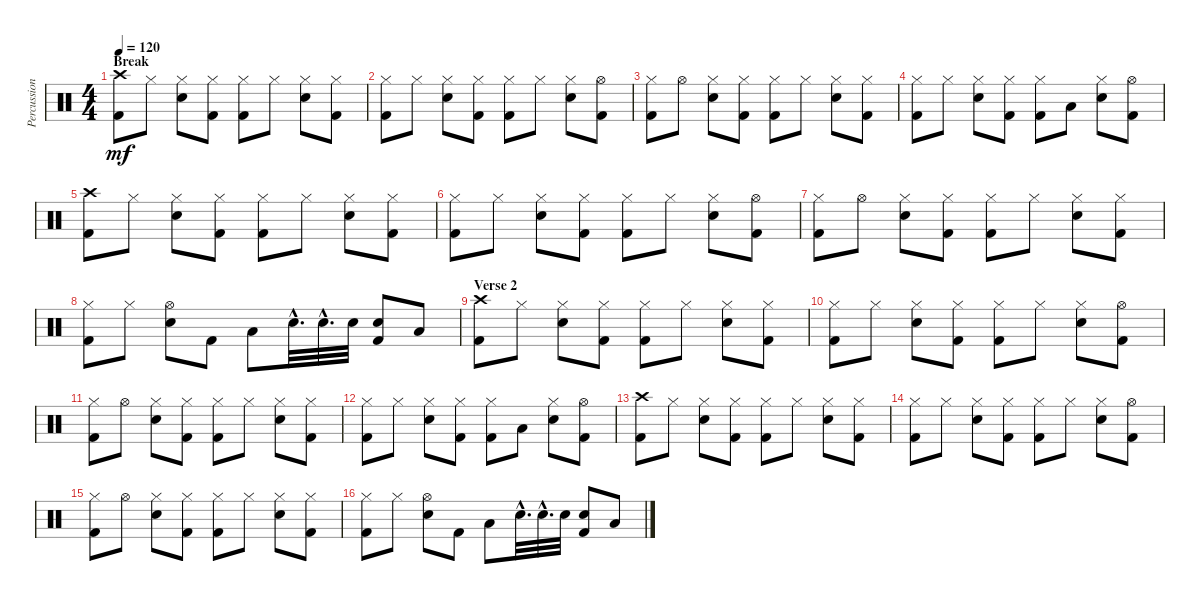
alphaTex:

\track ("Percussion" "Percussion") {instrument percussion}
\staff {score}
\articulation defaults
\ts (4 4)
\section ("" "Break")
\tempo 120
\clef neutral
\ks c
("Kick (hit) 2" "Crash high (hit)").8{dy mf} "Hi-Hat (closed)".8 ("Hi-Hat (closed)" "Snare (hit) 2").8 ("Hi-Hat (closed)" "Kick (hit) 2").8 ("Kick (hit) 2" "Hi-Hat (closed)").8 "Hi-Hat (closed)".8 ("Snare (hit) 2" "Hi-Hat (closed)").8 ("Kick (hit) 2" "Hi-Hat (closed)").8 |
("Kick (hit) 2" "Hi-Hat (closed)").8 "Hi-Hat (closed)".8 ("Hi-Hat (closed)" "Snare (hit) 2").8 ("Hi-Hat (closed)" "Kick (hit) 2").8 ("Kick (hit) 2" "Hi-Hat (closed)").8 "Hi-Hat (closed)".8 ("Snare (hit) 2" "Hi-Hat (closed)").8 ("Hi-Hat (open)" "Kick (hit) 2").8 |
("Kick (hit) 2" "Hi-Hat (closed)").8 "Hi-Hat (open)".8 ("Hi-Hat (closed)" "Snare (hit) 2").8 ("Hi-Hat (closed)" "Kick (hit) 2").8 ("Kick (hit) 2" "Hi-Hat (closed)").8 "Hi-Hat (closed)".8 ("Snare (hit) 2" "Hi-Hat (closed)").8 ("Kick (hit) 2" "Hi-Hat (closed)").8 |
("Kick (hit) 2" "Hi-Hat (closed)").8 "Hi-Hat (closed)".8 ("Hi-Hat (closed)" "Snare (hit) 2").8 ("Hi-Hat (closed)" "Kick (hit) 2").8 ("Kick (hit) 2" "Hi-Hat (closed)").8 "Low Floor Tom (hit)".8 ("Snare (hit) 2" "Hi-Hat (closed)").8 ("Hi-Hat (open)" "Kick (hit) 2").8 |
("Kick (hit) 2" "Crash high (hit)").8 "Hi-Hat (closed)".8 ("Hi-Hat (closed)" "Snare (hit) 2").8 ("Hi-Hat (closed)" "Kick (hit) 2").8 ("Kick (hit) 2" "Hi-Hat (closed)").8 "Hi-Hat (closed)".8 ("Snare (hit) 2" "Hi-Hat (closed)").8 ("Kick (hit) 2" "Hi-Hat (closed)").8 |
("Kick (hit) 2" "Hi-Hat (closed)").8 "Hi-Hat (closed)".8 ("Hi-Hat (closed)" "Snare (hit) 2").8 ("Hi-Hat (closed)" "Kick (hit) 2").8 ("Kick (hit) 2" "Hi-Hat (closed)").8 "Hi-Hat (closed)".8 ("Snare (hit) 2" "Hi-Hat (closed)").8 ("Hi-Hat (open)" "Kick (hit) 2").8 |
("Kick (hit) 2" "Hi-Hat (closed)").8 "Hi-Hat (open)".8 ("Hi-Hat (closed)" "Snare (hit) 2").8 ("Hi-Hat (closed)" "Kick (hit) 2").8 ("Kick (hit) 2" "Hi-Hat (closed)").8 "Hi-Hat (closed)".8 ("Snare (hit) 2" "Hi-Hat (closed)").8 ("Kick (hit) 2" "Hi-Hat (closed)").8 |
("Kick (hit) 2" "Hi-Hat (closed)").8 "Hi-Hat (closed)".8 ("Hi-Hat (open)" "Snare (hit) 2").8 "Kick (hit) 2".8 "Low Tom (hit)".8 "Snare (hit) 2"{hac}.32{d} "Snare (hit) 2"{hac}.32{d} "Snare (hit) 2".32 ("Snare (hit) 2" "Kick (hit) 2").8 "Low Floor Tom (hit)".8 |
\section ("" "Verse 2")
("Kick (hit) 2" "Crash high (hit)").8 "Hi-Hat (closed)".8 ("Hi-Hat (closed)" "Snare (hit) 2").8 ("Hi-Hat (closed)" "Kick (hit) 2").8 ("Kick (hit) 2" "Hi-Hat (closed)").8 "Hi-Hat (closed)".8 ("Snare (hit) 2" "Hi-Hat (closed)").8 ("Kick (hit) 2" "Hi-Hat (closed)").8 |
("Kick (hit) 2" "Hi-Hat (closed)").8 "Hi-Hat (closed)".8 ("Hi-Hat (closed)" "Snare (hit) 2").8 ("Hi-Hat (closed)" "Kick (hit) 2").8 ("Kick (hit) 2" "Hi-Hat (closed)").8 "Hi-Hat (closed)".8 ("Snare (hit) 2" "Hi-Hat (closed)").8 ("Hi-Hat (open)" "Kick (hit) 2").8 |
("Kick (hit) 2" "Hi-Hat (closed)").8 "Hi-Hat (open)".8 ("Hi-Hat (closed)" "Snare (hit) 2").8 ("Hi-Hat (closed)" "Kick (hit) 2").8 ("Kick (hit) 2" "Hi-Hat (closed)").8 "Hi-Hat (closed)".8 ("Snare (hit) 2" "Hi-Hat (closed)").8 ("Kick (hit) 2" "Hi-Hat (closed)").8 |
("Kick (hit) 2" "Hi-Hat (closed)").8 "Hi-Hat (closed)".8 ("Hi-Hat (closed)" "Snare (hit) 2").8 ("Hi-Hat (closed)" "Kick (hit) 2").8 ("Kick (hit) 2" "Hi-Hat (closed)").8 "Low Floor Tom (hit)".8 ("Snare (hit) 2" "Hi-Hat (closed)").8 ("Hi-Hat (open)" "Kick (hit) 2").8 |
("Kick (hit) 2" "Crash high (hit)").8 "Hi-Hat (closed)".8 ("Hi-Hat (closed)" "Snare (hit) 2").8 ("Hi-Hat (closed)" "Kick (hit) 2").8 ("Kick (hit) 2" "Hi-Hat (closed)").8 "Hi-Hat (closed)".8 ("Snare (hit) 2" "Hi-Hat (closed)").8 ("Kick (hit) 2" "Hi-Hat (closed)").8 |
("Kick (hit) 2" "Hi-Hat (closed)").8 "Hi-Hat (closed)".8 ("Hi-Hat (closed)" "Snare (hit) 2").8 ("Hi-Hat (closed)" "Kick (hit) 2").8 ("Kick (hit) 2" "Hi-Hat (closed)").8 "Hi-Hat (closed)".8 ("Snare (hit) 2" "Hi-Hat (closed)").8 ("Hi-Hat (open)" "Kick (hit) 2").8 |
("Kick (hit) 2" "Hi-Hat (closed)").8 "Hi-Hat (open)".8 ("Hi-Hat (closed)" "Snare (hit) 2").8 ("Hi-Hat (closed)" "Kick (hit) 2").8 ("Kick (hit) 2" "Hi-Hat (closed)").8 "Hi-Hat (closed)".8 ("Snare (hit) 2" "Hi-Hat (closed)").8 ("Kick (hit) 2" "Hi-Hat (closed)").8 |
("Kick (hit) 2" "Hi-Hat (closed)").8 "Hi-Hat (closed)".8 ("Hi-Hat (open)" "Snare (hit) 2").8 "Kick (hit) 2".8 "Low Tom (hit)".8 "Snare (hit) 2"{hac}.32{d} "Snare (hit) 2"{hac}.32{d} "Snare (hit) 2".32 ("Snare (hit) 2" "Kick (hit) 2").8 "Low Floor Tom (hit)".8
